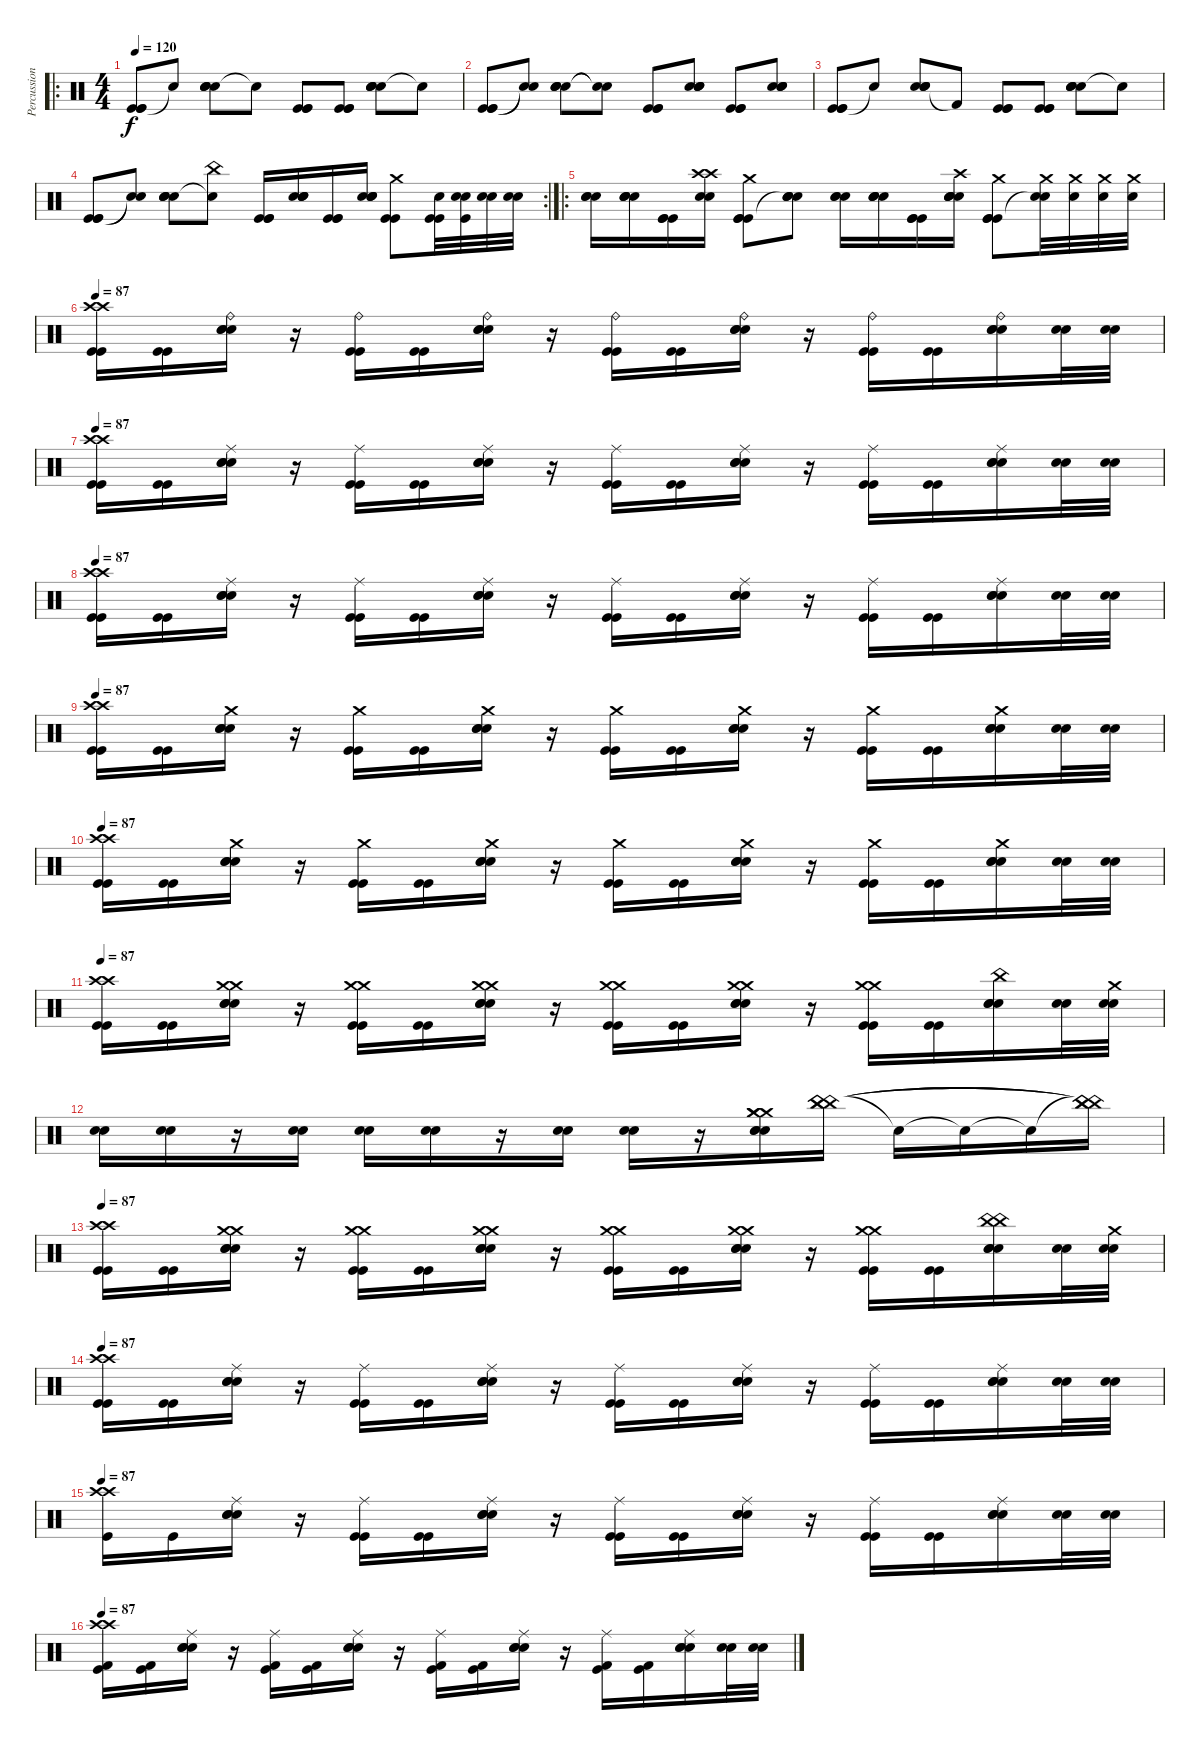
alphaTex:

\track ("Percussions (julien)" "Percussion") {instrument percussion}
\staff {score}
\articulation defaults
\ro
\ts (4 4)
\tempo 120
\clef neutral
\ks c
("Kick (hit)" "Kick (hit)" "Kick (hit)").8{dy f} "Snare (hit) 2"{t}.8 ("Electric Snare (hit)" "Electric Snare (hit)" "Electric Snare (hit)" "Electric Snare (hit)").8 "Snare (hit) 2"{t}.8 ("Kick (hit)" "Kick (hit)" "Kick (hit)").8 ("Kick (hit)" "Kick (hit)" "Kick (hit)").8 ("Electric Snare (hit)" "Electric Snare (hit)" "Electric Snare (hit)" "Electric Snare (hit)").8 "Snare (hit)"{t}.8 |
("Kick (hit)" "Kick (hit)" "Kick (hit)").8 ("Snare (hit) 2"{t} "Snare (hit) 2"{t}).8 ("Electric Snare (hit)" "Electric Snare (hit)" "Electric Snare (hit)" "Electric Snare (hit)").8 ("Snare (hit) 2"{t} "Snare (hit) 2"{t}).8 ("Kick (hit)" "Kick (hit)" "Kick (hit)").8 ("Electric Snare (hit)" "Electric Snare (hit)" "Electric Snare (hit)" "Electric Snare (hit)").8 ("Kick (hit)" "Kick (hit)" "Kick (hit)").8 ("Electric Snare (hit)" "Electric Snare (hit)" "Electric Snare (hit)" "Electric Snare (hit)").8 |
("Kick (hit)" "Kick (hit)" "Kick (hit)").8 "Snare (hit) 2"{t}.8 ("Electric Snare (hit)" "Electric Snare (hit)" "Electric Snare (hit)" "Electric Snare (hit)").8 "Kick (hit) 2"{t}.8 ("Kick (hit)" "Kick (hit)" "Kick (hit)").8 ("Kick (hit)" "Kick (hit)" "Kick (hit)").8 ("Electric Snare (hit)" "Electric Snare (hit)" "Electric Snare (hit)" "Electric Snare (hit)").8 "Snare (hit) 2"{t}.8 |
\rc 2
("Kick (hit)" "Kick (hit)" "Kick (hit)").8 ("Snare (hit) 2"{t} "Snare (hit) 2"{t}).8 ("Electric Snare (hit)" "Electric Snare (hit)" "Electric Snare (hit)" "Electric Snare (hit)").8 ("China (hit)" "Snare (hit) 2"{t}).8 ("Kick (hit)" "Kick (hit)" "Kick (hit)").16 ("Electric Snare (hit)" "Electric Snare (hit)" "Electric Snare (hit)" "Electric Snare (hit)").16 ("Kick (hit)" "Kick (hit)" "Kick (hit)").16 ("Electric Snare (hit)" "Electric Snare (hit)" "Electric Snare (hit)" "Electric Snare (hit)").16 ("Crash medium (hit)" "Kick (hit)" "Kick (hit)").8 ("Electric Snare (hit)" "Kick (hit)" "Kick (hit)").32 ("Kick (hit)" "Electric Snare (hit)" "Electric Snare (hit)").32 ("Electric Snare (hit)" "Electric Snare (hit)").32 ("Electric Snare (hit)" "Electric Snare (hit)").32 |
\ro
("Electric Snare (hit)" "Electric Snare (hit)" "Electric Snare (hit)").16 ("Electric Snare (hit)" "Electric Snare (hit)" "Electric Snare (hit)" "Electric Snare (hit)").16 ("Kick (hit)" "Kick (hit)" "Kick (hit)").16 ("Crash high (hit)" "Electric Snare (hit)" "Electric Snare (hit)" "Crash high (hit)").16 ("Crash medium (hit)" "Kick (hit)" "Kick (hit)" "Kick (hit)").8 ("Electric Snare (hit)" "Electric Snare (hit)" "Electric Snare (hit)" "Snare (hit)"{t}).8 ("Electric Snare (hit)" "Electric Snare (hit)" "Electric Snare (hit)").16 ("Electric Snare (hit)" "Electric Snare (hit)" "Electric Snare (hit)" "Electric Snare (hit)").16 ("Kick (hit)" "Kick (hit)" "Kick (hit)").16 ("Electric Snare (hit)" "Electric Snare (hit)" "Electric Snare (hit)" "Electric Snare (hit)" "Crash high (hit)").16 ("Kick (hit)" "Kick (hit)" "Kick (hit)" "Crash medium (hit)").8 ("Electric Snare (hit)" "Crash medium (hit)" "Snare (hit)"{t}).32 ("Electric Snare (hit)" "Crash medium (hit)").32 ("Electric Snare (hit)" "Crash medium (hit)").32 ("Electric Snare (hit)" "Crash medium (hit)").32 |
\tempo 87
("Kick (hit)" "Kick (hit)" "Crash high (hit)" "Crash high (hit)").16 ("Kick (hit)" "Kick (hit)").16 ("Electric Snare (hit)" "Electric Snare (hit)" "Electric Snare (hit)" "Ride (bell)").16 r.16 ("Kick (hit)" "Kick (hit)" "Ride (bell)").16 ("Kick (hit)" "Kick (hit)").16 ("Electric Snare (hit)" "Electric Snare (hit)" "Electric Snare (hit)" "Ride (bell)").16 r.16 ("Kick (hit)" "Kick (hit)" "Ride (bell)").16 ("Kick (hit)" "Kick (hit)").16 ("Electric Snare (hit)" "Electric Snare (hit)" "Electric Snare (hit)" "Ride (bell)").16 r.16 ("Kick (hit)" "Kick (hit)" "Ride (bell)").16 ("Kick (hit)" "Kick (hit)").16 ("Electric Snare (hit)" "Electric Snare (hit)" "Electric Snare (hit)" "Ride (bell)").16 ("Electric Snare (hit)" "Electric Snare (hit)").32 ("Electric Snare (hit)" "Electric Snare (hit)").32 |
\tempo 87
("Kick (hit)" "Kick (hit)" "Crash high (hit)" "Crash high (hit)").16 ("Kick (hit)" "Kick (hit)").16 ("Electric Snare (hit)" "Electric Snare (hit)" "Electric Snare (hit)" "Ride (middle)").16 r.16 ("Kick (hit)" "Kick (hit)" "Ride (middle)").16 ("Kick (hit)" "Kick (hit)").16 ("Electric Snare (hit)" "Electric Snare (hit)" "Electric Snare (hit)" "Ride (middle)").16 r.16 ("Kick (hit)" "Kick (hit)" "Ride (middle)").16 ("Kick (hit)" "Kick (hit)").16 ("Electric Snare (hit)" "Electric Snare (hit)" "Electric Snare (hit)" "Ride (middle)").16 r.16 ("Kick (hit)" "Kick (hit)" "Ride (middle)").16 ("Kick (hit)" "Kick (hit)").16 ("Electric Snare (hit)" "Electric Snare (hit)" "Electric Snare (hit)" "Ride (middle)").16 ("Electric Snare (hit)" "Electric Snare (hit)").32 ("Electric Snare (hit)" "Electric Snare (hit)").32 |
\tempo 87
("Kick (hit)" "Kick (hit)" "Crash high (hit)" "Crash high (hit)").16 ("Kick (hit)" "Kick (hit)").16 ("Electric Snare (hit)" "Electric Snare (hit)" "Electric Snare (hit)" "Ride (middle)").16 r.16 ("Kick (hit)" "Kick (hit)" "Ride (middle)").16 ("Kick (hit)" "Kick (hit)").16 ("Electric Snare (hit)" "Electric Snare (hit)" "Electric Snare (hit)" "Ride (middle)").16 r.16 ("Kick (hit)" "Kick (hit)" "Ride (middle)").16 ("Kick (hit)" "Kick (hit)").16 ("Electric Snare (hit)" "Electric Snare (hit)" "Electric Snare (hit)" "Ride (middle)").16 r.16 ("Kick (hit)" "Kick (hit)" "Ride (middle)").16 ("Kick (hit)" "Kick (hit)").16 ("Electric Snare (hit)" "Electric Snare (hit)" "Electric Snare (hit)" "Ride (middle)").16 ("Electric Snare (hit)" "Electric Snare (hit)").32 ("Electric Snare (hit)" "Electric Snare (hit)").32 |
\tempo 87
("Kick (hit)" "Kick (hit)" "Crash high (hit)" "Crash high (hit)").16 ("Kick (hit)" "Kick (hit)").16 ("Electric Snare (hit)" "Electric Snare (hit)" "Electric Snare (hit)" "Crash medium (hit)").16 r.16 ("Kick (hit)" "Kick (hit)" "Crash medium (hit)").16 ("Kick (hit)" "Kick (hit)").16 ("Electric Snare (hit)" "Electric Snare (hit)" "Electric Snare (hit)" "Crash medium (hit)").16 r.16 ("Kick (hit)" "Kick (hit)" "Crash medium (hit)").16 ("Kick (hit)" "Kick (hit)").16 ("Electric Snare (hit)" "Electric Snare (hit)" "Electric Snare (hit)" "Crash medium (hit)").16 r.16 ("Kick (hit)" "Kick (hit)" "Crash medium (hit)").16 ("Kick (hit)" "Kick (hit)").16 ("Electric Snare (hit)" "Electric Snare (hit)" "Electric Snare (hit)" "Crash medium (hit)").16 ("Electric Snare (hit)" "Electric Snare (hit)").32 ("Electric Snare (hit)" "Electric Snare (hit)").32 |
\tempo 87
("Kick (hit)" "Kick (hit)" "Crash high (hit)" "Crash high (hit)").16 ("Kick (hit)" "Kick (hit)").16 ("Electric Snare (hit)" "Electric Snare (hit)" "Electric Snare (hit)" "Crash medium (hit)").16 r.16 ("Kick (hit)" "Kick (hit)" "Crash medium (hit)").16 ("Kick (hit)" "Kick (hit)").16 ("Electric Snare (hit)" "Electric Snare (hit)" "Electric Snare (hit)" "Crash medium (hit)").16 r.16 ("Kick (hit)" "Kick (hit)" "Crash medium (hit)").16 ("Kick (hit)" "Kick (hit)").16 ("Electric Snare (hit)" "Electric Snare (hit)" "Electric Snare (hit)" "Crash medium (hit)").16 r.16 ("Kick (hit)" "Kick (hit)" "Crash medium (hit)").16 ("Kick (hit)" "Kick (hit)").16 ("Electric Snare (hit)" "Electric Snare (hit)" "Electric Snare (hit)" "Crash medium (hit)").16 ("Electric Snare (hit)" "Electric Snare (hit)").32 ("Electric Snare (hit)" "Electric Snare (hit)").32 |
\tempo 87
("Kick (hit)" "Kick (hit)" "Crash high (hit)" "Crash high (hit)").16 ("Kick (hit)" "Kick (hit)").16 ("Electric Snare (hit)" "Electric Snare (hit)" "Electric Snare (hit)" "Crash medium (hit)" "Crash medium (hit)").16 r.16 ("Kick (hit)" "Kick (hit)" "Crash medium (hit)" "Crash medium (hit)").16 ("Kick (hit)" "Kick (hit)").16 ("Electric Snare (hit)" "Electric Snare (hit)" "Electric Snare (hit)" "Crash medium (hit)" "Crash medium (hit)").16 r.16 ("Kick (hit)" "Kick (hit)" "Crash medium (hit)" "Crash medium (hit)").16 ("Kick (hit)" "Kick (hit)").16 ("Electric Snare (hit)" "Electric Snare (hit)" "Electric Snare (hit)" "Crash medium (hit)" "Crash medium (hit)").16 r.16 ("Kick (hit)" "Kick (hit)" "Crash medium (hit)" "Crash medium (hit)").16 ("Kick (hit)" "Kick (hit)").16 ("Electric Snare (hit)" "Electric Snare (hit)" "Electric Snare (hit)" "China (hit)").16 ("Electric Snare (hit)" "Electric Snare (hit)").32 ("Electric Snare (hit)" "Electric Snare (hit)" "Crash medium (hit)").32 |
("Electric Snare (hit)" "Electric Snare (hit)").16 ("Electric Snare (hit)" "Electric Snare (hit)").16 r.16 ("Electric Snare (hit)" "Electric Snare (hit)").16 ("Electric Snare (hit)" "Electric Snare (hit)").16 ("Electric Snare (hit)" "Electric Snare (hit)").16 r.16 ("Electric Snare (hit)" "Electric Snare (hit)").16 ("Electric Snare (hit)" "Electric Snare (hit)").16 r.16 ("Electric Snare (hit)" "Electric Snare (hit)" "Electric Snare (hit)" "Crash medium (hit)" "Crash medium (hit)" "Crash medium (hit)").16 ("China (hit)" "China (hit)" "China (hit)").16 "Snare (hit)"{t}.16 "Snare (hit)"{t}.16 "Snare (hit)"{t}.16 ("China (hit)"{t} "China (hit)"{t} "China (hit)"{t}).16 |
\tempo 87
("Kick (hit)" "Kick (hit)" "Crash high (hit)" "Crash high (hit)").16 ("Kick (hit)" "Kick (hit)").16 ("Electric Snare (hit)" "Electric Snare (hit)" "Electric Snare (hit)" "Crash medium (hit)" "Crash medium (hit)").16 r.16 ("Kick (hit)" "Kick (hit)" "Crash medium (hit)" "Crash medium (hit)").16 ("Kick (hit)" "Kick (hit)").16 ("Electric Snare (hit)" "Electric Snare (hit)" "Electric Snare (hit)" "Crash medium (hit)" "Crash medium (hit)").16 r.16 ("Kick (hit)" "Kick (hit)" "Crash medium (hit)" "Crash medium (hit)").16 ("Kick (hit)" "Kick (hit)").16 ("Electric Snare (hit)" "Electric Snare (hit)" "Electric Snare (hit)" "Crash medium (hit)" "Crash medium (hit)").16 r.16 ("Kick (hit)" "Kick (hit)" "Crash medium (hit)" "Crash medium (hit)").16 ("Kick (hit)" "Kick (hit)").16 ("Electric Snare (hit)" "Electric Snare (hit)" "Electric Snare (hit)" "China (hit)" "China (hit)").16 ("Electric Snare (hit)" "Electric Snare (hit)").32 ("Electric Snare (hit)" "Electric Snare (hit)" "Crash medium (hit)").32 |
\tempo 87
("Kick (hit)" "Kick (hit)" "Crash high (hit)" "Crash high (hit)").16 ("Kick (hit)" "Kick (hit)").16 ("Electric Snare (hit)" "Electric Snare (hit)" "Electric Snare (hit)" "Ride (middle)").16 r.16 ("Kick (hit)" "Kick (hit)" "Ride (middle)").16 ("Kick (hit)" "Kick (hit)").16 ("Electric Snare (hit)" "Electric Snare (hit)" "Electric Snare (hit)" "Ride (middle)").16 r.16 ("Kick (hit)" "Kick (hit)" "Ride (middle)").16 ("Kick (hit)" "Kick (hit)").16 ("Electric Snare (hit)" "Electric Snare (hit)" "Electric Snare (hit)" "Ride (middle)").16 r.16 ("Kick (hit)" "Kick (hit)" "Ride (middle)").16 ("Kick (hit)" "Kick (hit)").16 ("Electric Snare (hit)" "Electric Snare (hit)" "Electric Snare (hit)" "Ride (middle)").16 ("Electric Snare (hit)" "Electric Snare (hit)").32 ("Electric Snare (hit)" "Electric Snare (hit)").32 |
\tempo 87
("Kick (hit)" "Crash high (hit)" "Crash high (hit)").16 "Kick (hit)".16 ("Electric Snare (hit)" "Electric Snare (hit)" "Electric Snare (hit)" "Ride (middle)").16 r.16 ("Kick (hit)" "Kick (hit)" "Ride (middle)").16 ("Kick (hit)" "Kick (hit)").16 ("Electric Snare (hit)" "Electric Snare (hit)" "Electric Snare (hit)" "Ride (middle)").16 r.16 ("Kick (hit)" "Kick (hit)" "Ride (middle)").16 ("Kick (hit)" "Kick (hit)").16 ("Electric Snare (hit)" "Electric Snare (hit)" "Electric Snare (hit)" "Ride (middle)").16 r.16 ("Kick (hit)" "Kick (hit)" "Ride (middle)").16 ("Kick (hit)" "Kick (hit)").16 ("Electric Snare (hit)" "Electric Snare (hit)" "Electric Snare (hit)" "Ride (middle)").16 ("Electric Snare (hit)" "Electric Snare (hit)").32 ("Electric Snare (hit)" "Electric Snare (hit)").32 |
\tempo 87
("Kick (hit)" "Kick (hit) 2" "Crash high (hit)" "Crash high (hit)").16 ("Kick (hit)" "Kick (hit) 2").16 ("Electric Snare (hit)" "Electric Snare (hit)" "Electric Snare (hit)" "Ride (middle)").16 r.16 ("Kick (hit)" "Kick (hit) 2" "Ride (middle)").16 ("Kick (hit)" "Kick (hit) 2").16 ("Electric Snare (hit)" "Electric Snare (hit)" "Electric Snare (hit)" "Ride (middle)").16 r.16 ("Kick (hit)" "Kick (hit) 2" "Ride (middle)").16 ("Kick (hit)" "Kick (hit) 2").16 ("Electric Snare (hit)" "Electric Snare (hit)" "Electric Snare (hit)" "Ride (middle)").16 r.16 ("Kick (hit)" "Kick (hit) 2" "Ride (middle)").16 ("Kick (hit)" "Kick (hit) 2").16 ("Electric Snare (hit)" "Electric Snare (hit)" "Electric Snare (hit)" "Ride (middle)").16 ("Electric Snare (hit)" "Electric Snare (hit)").32 ("Electric Snare (hit)" "Electric Snare (hit)").32
